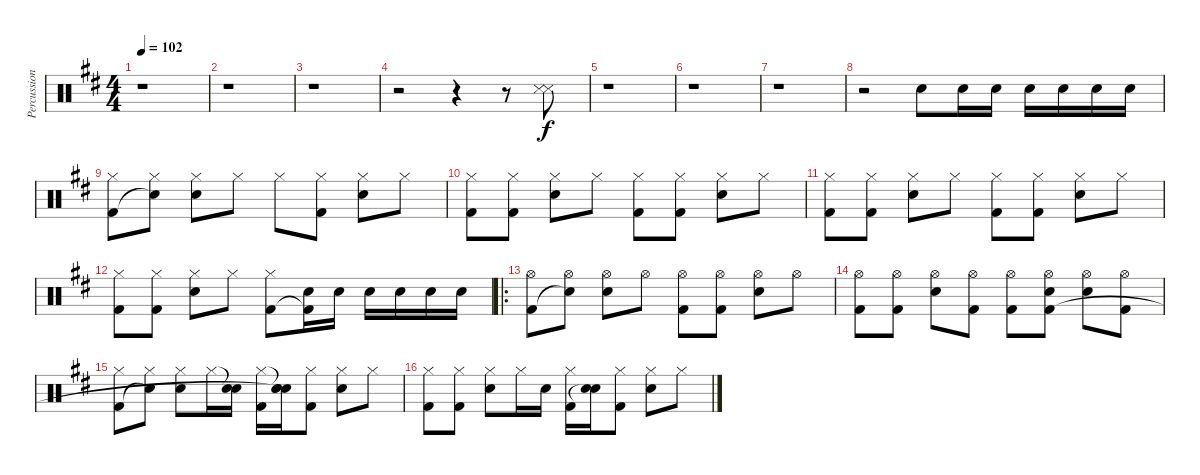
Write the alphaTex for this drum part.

\track ("Percussion" "Percussion") {instrument percussion}
\staff {score}
\articulation defaults
\ts (4 4)
\tempo 102
\clef neutral
\ks d
r.1{dy f} |
r.1 |
r.1 |
r.2 r.4 r.8 ("Snare (side stick) 3" "Snare (side stick) 3").8 |
r.1 |
r.1 |
r.1 |
r.2 "Snare (hit) 2".8 "Snare (hit) 2".16 "Snare (hit) 2".16 "Snare (hit) 2".16 "Snare (hit) 2".16 "Snare (hit) 2".16 "Snare (hit) 2".16 |
("Hi-Hat (closed)" "Kick (hit) 2").8 ("Hi-Hat (closed)" "Snare (hit)"{t}).8 ("Hi-Hat (closed)" "Snare (hit) 2").8 "Hi-Hat (closed)".8 "Hi-Hat (closed)".8 ("Hi-Hat (closed)" "Kick (hit) 2").8 ("Hi-Hat (closed)" "Snare (hit) 2").8 "Hi-Hat (closed)".8 |
("Hi-Hat (closed)" "Kick (hit) 2").8 ("Hi-Hat (closed)" "Kick (hit) 2").8 ("Hi-Hat (closed)" "Snare (hit) 2").8 "Hi-Hat (closed)".8 ("Hi-Hat (closed)" "Kick (hit) 2").8 ("Hi-Hat (closed)" "Kick (hit) 2").8 ("Hi-Hat (closed)" "Snare (hit) 2").8 "Hi-Hat (closed)".8 |
("Hi-Hat (closed)" "Kick (hit) 2").8 ("Hi-Hat (closed)" "Kick (hit) 2").8 ("Hi-Hat (closed)" "Snare (hit) 2").8 "Hi-Hat (closed)".8 ("Hi-Hat (closed)" "Kick (hit) 2").8 ("Hi-Hat (closed)" "Kick (hit) 2").8 ("Hi-Hat (closed)" "Snare (hit) 2").8 "Hi-Hat (closed)".8 |
("Hi-Hat (closed)" "Kick (hit) 2").8 ("Hi-Hat (closed)" "Kick (hit) 2").8 ("Hi-Hat (closed)" "Snare (hit) 2").8 "Hi-Hat (closed)".8 ("Hi-Hat (closed)" "Kick (hit) 2").8 ("Snare (hit) 2" "Kick (hit) 2"{t}).16 "Snare (hit) 2".16 "Snare (hit) 2".16 "Snare (hit) 2".16 "Snare (hit) 2".16 "Snare (hit) 2".16 |
\ro
("Hi-Hat (open)" "Kick (hit) 2").8 ("Hi-Hat (open)" "Snare (hit)"{t}).8 ("Hi-Hat (open)" "Snare (hit) 2").8 "Hi-Hat (open)".8 ("Hi-Hat (open)" "Kick (hit) 2").8 ("Hi-Hat (open)" "Kick (hit) 2").8 ("Hi-Hat (open)" "Snare (hit) 2").8 "Hi-Hat (open)".8 |
("Hi-Hat (open)" "Kick (hit) 2").8 ("Hi-Hat (open)" "Kick (hit) 2").8 ("Hi-Hat (open)" "Snare (hit) 2").8 ("Hi-Hat (open)" "Kick (hit) 2").8 ("Hi-Hat (open)" "Kick (hit) 2").8 ("Hi-Hat (open)" "Snare (hit) 2" "Kick (hit) 2").8 ("Hi-Hat (open)" "Snare (hit) 2").8 ("Hi-Hat (open)" "Kick (hit) 2").8 |
("Hi-Hat (closed)" "Kick (hit) 2").8 ("Hi-Hat (closed)" "Snare (hit)"{t}).8 ("Hi-Hat (closed)" "Snare (hit) 2").8 "Hi-Hat (closed)".16 ("Snare (hit)"{t} "Snare (hit) 2").16 ("Hi-Hat (closed)" "Kick (hit) 2").16 ("Snare (hit)"{t} "Snare (hit) 2" "Snare (hit)"{t}).16 ("Hi-Hat (closed)" "Kick (hit) 2").8 ("Hi-Hat (closed)" "Snare (hit) 2").8 "Hi-Hat (closed)".8 |
("Hi-Hat (closed)" "Kick (hit) 2").8 ("Hi-Hat (closed)" "Kick (hit) 2").8 ("Hi-Hat (closed)" "Snare (hit) 2").8 "Hi-Hat (closed)".16 "Snare (hit) 2".16 ("Hi-Hat (closed)" "Kick (hit) 2").16 ("Snare (hit) 2" "Snare (hit)"{t}).16 ("Hi-Hat (closed)" "Kick (hit) 2").8 ("Hi-Hat (closed)" "Snare (hit) 2").8 "Hi-Hat (closed)".8
